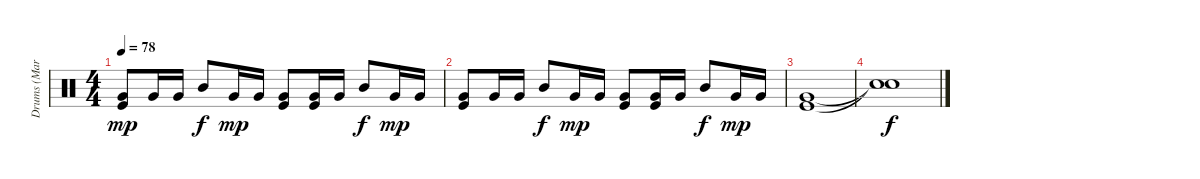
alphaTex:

\track ("Drums (Marcel Roemer)" "Drums (Mar") {instrument percussion}
\staff {score}
\articulation defaults
\ts (4 4)
\tempo 78
\clef neutral
\ks c
("Very Low Tom (hit)" "Kick (hit)").8{dy mp} "Very Low Tom (hit)".16 "Very Low Tom (hit)".16 "Mid Tom (hit)".8{dy f} "Very Low Tom (hit)".16{dy mp} "Very Low Tom (hit)".16 ("Very Low Tom (hit)" "Kick (hit)").8 ("Very Low Tom (hit)" "Kick (hit)").16 "Very Low Tom (hit)".16 "Mid Tom (hit)".8{dy f} "Very Low Tom (hit)".16{dy mp} "Very Low Tom (hit)".16 |
("Very Low Tom (hit)" "Kick (hit)").8 "Very Low Tom (hit)".16 "Very Low Tom (hit)".16 "Mid Tom (hit)".8{dy f} "Very Low Tom (hit)".16{dy mp} "Very Low Tom (hit)".16 ("Very Low Tom (hit)" "Kick (hit)").8 ("Very Low Tom (hit)" "Kick (hit)").16 "Very Low Tom (hit)".16 "Mid Tom (hit)".8{dy f} "Very Low Tom (hit)".16{dy mp} "Very Low Tom (hit)".16 |
("Very Low Tom (hit)" "Kick (hit)").1 |
("Snare (hit)"{t} "Snare (hit)"{t}).1{dy f}
